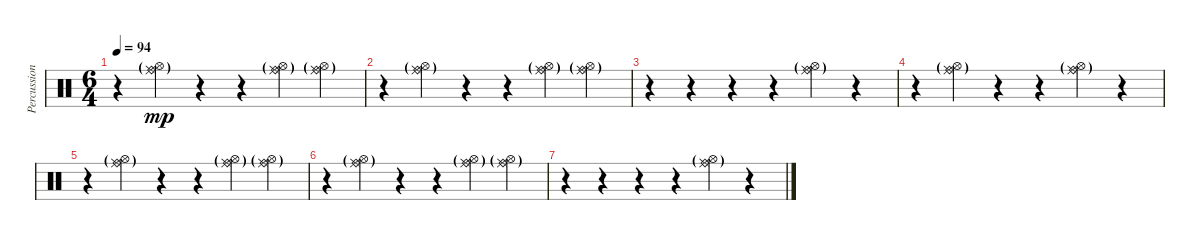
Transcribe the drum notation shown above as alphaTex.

\track ("Percussion" "Percussion") {instrument percussion}
\staff {score}
\articulation defaults
\ts (6 4)
\tempo 94
\clef neutral
\ks c
r.4{dy mp} ("Ride (bell)"{g} "Ride (middle)"{g} "Hi-Hat (open)"{g}).4 r.4 r.4 ("Ride (bell)"{g} "Ride (middle)"{g} "Hi-Hat (open)"{g}).4 ("Ride (bell)"{g} "Ride (middle)"{g} "Hi-Hat (open)"{g}).4 |
r.4 ("Ride (bell)"{g} "Ride (middle)"{g} "Hi-Hat (open)"{g}).4 r.4 r.4 ("Ride (bell)"{g} "Ride (middle)"{g} "Hi-Hat (open)"{g}).4 ("Ride (bell)"{g} "Ride (middle)"{g} "Hi-Hat (open)"{g}).4 |
r.4 r.4 r.4 r.4 ("Ride (bell)"{g} "Ride (middle)"{g} "Hi-Hat (open)"{g}).4 r.4 |
r.4 ("Ride (middle)"{g} "Ride (bell)"{g} "Hi-Hat (open)"{g}).4 r.4 r.4 ("Ride (bell)"{g} "Ride (middle)"{g} "Hi-Hat (open)"{g}).4 r.4 |
r.4 ("Ride (bell)"{g} "Ride (middle)"{g} "Hi-Hat (open)"{g}).4 r.4 r.4 ("Ride (bell)"{g} "Ride (middle)"{g} "Hi-Hat (open)"{g}).4 ("Ride (bell)"{g} "Ride (middle)"{g} "Hi-Hat (open)"{g}).4 |
r.4 ("Ride (bell)"{g} "Ride (middle)"{g} "Hi-Hat (open)"{g}).4 r.4 r.4 ("Ride (bell)"{g} "Ride (middle)"{g} "Hi-Hat (open)"{g}).4 ("Ride (bell)"{g} "Ride (middle)"{g} "Hi-Hat (open)"{g}).4 |
r.4 r.4 r.4 r.4 ("Ride (bell)"{g} "Ride (middle)"{g} "Hi-Hat (open)"{g}).4 r.4
